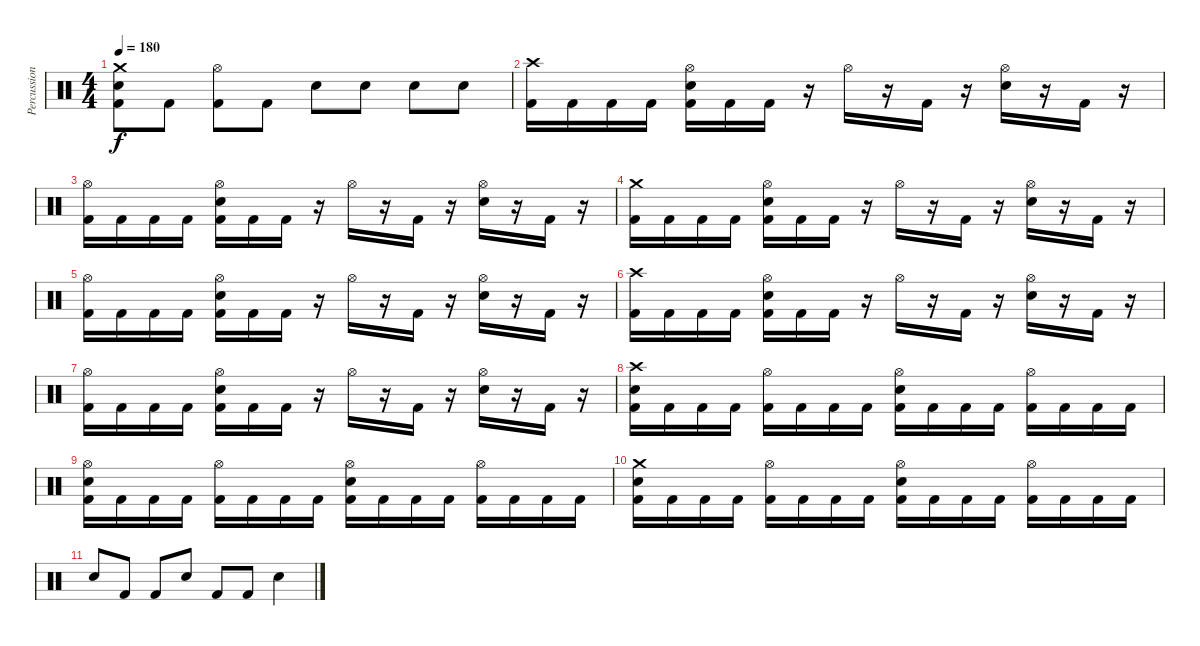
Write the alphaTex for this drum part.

\track ("Percussion" "Percussion") {instrument percussion}
\staff {score}
\articulation defaults
\ts (4 4)
\tempo 180
\clef neutral
\ks c
("Crash medium (hit)" "Snare (hit) 2" "Kick (hit) 2").8{dy f} "Kick (hit) 2".8 ("Hi-Hat (open)" "Kick (hit) 2").8 "Kick (hit) 2".8 "Snare (hit) 2".8 "Snare (hit) 2".8 "Snare (hit) 2".8 "Snare (hit) 2".8 |
("Crash high (hit)" "Kick (hit) 2").16 "Kick (hit) 2".16 "Kick (hit) 2".16 "Kick (hit) 2".16 ("Hi-Hat (open)" "Snare (hit) 2" "Kick (hit) 2").16 "Kick (hit) 2".16 "Kick (hit) 2".16 r.16 "Hi-Hat (open)".16 r.16 "Kick (hit) 2".16 r.16 ("Hi-Hat (open)" "Snare (hit) 2").16 r.16 "Kick (hit) 2".16 r.16 |
("Hi-Hat (open)" "Kick (hit) 2").16 "Kick (hit) 2".16 "Kick (hit) 2".16 "Kick (hit) 2".16 ("Hi-Hat (open)" "Snare (hit) 2" "Kick (hit) 2").16 "Kick (hit) 2".16 "Kick (hit) 2".16 r.16 "Hi-Hat (open)".16 r.16 "Kick (hit) 2".16 r.16 ("Hi-Hat (open)" "Snare (hit) 2").16 r.16 "Kick (hit) 2".16 r.16 |
("Crash medium (hit)" "Kick (hit) 2").16 "Kick (hit) 2".16 "Kick (hit) 2".16 "Kick (hit) 2".16 ("Hi-Hat (open)" "Snare (hit) 2" "Kick (hit) 2").16 "Kick (hit) 2".16 "Kick (hit) 2".16 r.16 "Hi-Hat (open)".16 r.16 "Kick (hit) 2".16 r.16 ("Hi-Hat (open)" "Snare (hit) 2").16 r.16 "Kick (hit) 2".16 r.16 |
("Hi-Hat (open)" "Kick (hit) 2").16 "Kick (hit) 2".16 "Kick (hit) 2".16 "Kick (hit) 2".16 ("Hi-Hat (open)" "Snare (hit) 2" "Kick (hit) 2").16 "Kick (hit) 2".16 "Kick (hit) 2".16 r.16 "Hi-Hat (open)".16 r.16 "Kick (hit) 2".16 r.16 ("Hi-Hat (open)" "Snare (hit) 2").16 r.16 "Kick (hit) 2".16 r.16 |
("Crash high (hit)" "Kick (hit) 2").16 "Kick (hit) 2".16 "Kick (hit) 2".16 "Kick (hit) 2".16 ("Hi-Hat (open)" "Snare (hit) 2" "Kick (hit) 2").16 "Kick (hit) 2".16 "Kick (hit) 2".16 r.16 "Hi-Hat (open)".16 r.16 "Kick (hit) 2".16 r.16 ("Hi-Hat (open)" "Snare (hit) 2").16 r.16 "Kick (hit) 2".16 r.16 |
("Hi-Hat (open)" "Kick (hit) 2").16 "Kick (hit) 2".16 "Kick (hit) 2".16 "Kick (hit) 2".16 ("Hi-Hat (open)" "Snare (hit) 2" "Kick (hit) 2").16 "Kick (hit) 2".16 "Kick (hit) 2".16 r.16 "Hi-Hat (open)".16 r.16 "Kick (hit) 2".16 r.16 ("Hi-Hat (open)" "Snare (hit) 2").16 r.16 "Kick (hit) 2".16 r.16 |
("Crash high (hit)" "Snare (hit) 2" "Kick (hit) 2").16 "Kick (hit) 2".16 "Kick (hit) 2".16 "Kick (hit) 2".16 ("Hi-Hat (open)" "Kick (hit) 2").16 "Kick (hit) 2".16 "Kick (hit) 2".16 "Kick (hit) 2".16 ("Hi-Hat (open)" "Snare (hit) 2" "Kick (hit) 2").16 "Kick (hit) 2".16 "Kick (hit) 2".16 "Kick (hit) 2".16 ("Hi-Hat (open)" "Kick (hit) 2").16 "Kick (hit) 2".16 "Kick (hit) 2".16 "Kick (hit) 2".16 |
("Hi-Hat (open)" "Snare (hit) 2" "Kick (hit) 2").16 "Kick (hit) 2".16 "Kick (hit) 2".16 "Kick (hit) 2".16 ("Hi-Hat (open)" "Kick (hit) 2").16 "Kick (hit) 2".16 "Kick (hit) 2".16 "Kick (hit) 2".16 ("Hi-Hat (open)" "Snare (hit) 2" "Kick (hit) 2").16 "Kick (hit) 2".16 "Kick (hit) 2".16 "Kick (hit) 2".16 ("Hi-Hat (open)" "Kick (hit) 2").16 "Kick (hit) 2".16 "Kick (hit) 2".16 "Kick (hit) 2".16 |
("Crash medium (hit)" "Snare (hit) 2" "Kick (hit) 2").16 "Kick (hit) 2".16 "Kick (hit) 2".16 "Kick (hit) 2".16 ("Hi-Hat (open)" "Kick (hit) 2").16 "Kick (hit) 2".16 "Kick (hit) 2".16 "Kick (hit) 2".16 ("Hi-Hat (open)" "Snare (hit) 2" "Kick (hit) 2").16 "Kick (hit) 2".16 "Kick (hit) 2".16 "Kick (hit) 2".16 ("Hi-Hat (open)" "Kick (hit) 2").16 "Kick (hit) 2".16 "Kick (hit) 2".16 "Kick (hit) 2".16 |
"Snare (hit) 2".8 "Kick (hit) 2".8 "Kick (hit) 2".8 "Snare (hit) 2".8 "Kick (hit) 2".8 "Kick (hit) 2".8 "Snare (hit) 2".4
